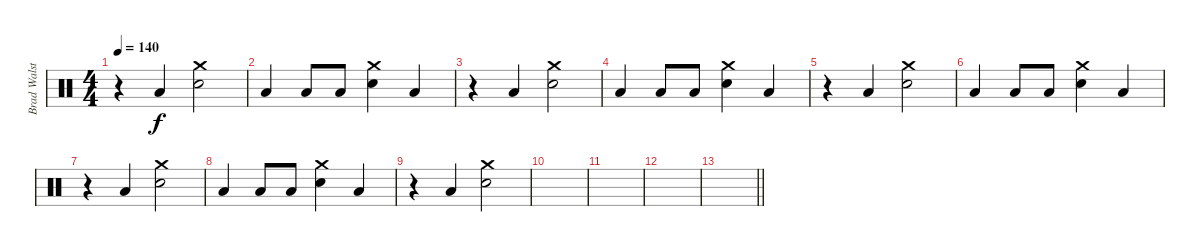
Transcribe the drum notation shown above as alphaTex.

\track ("Brad Walst" "Brad Walst") {instrument percussion}
\staff {score}
\articulation defaults
\ts (4 4)
\tempo 140
\clef neutral
\ks c
r.4{dy f} "Low Floor Tom (hit)".4 ("Crash medium (hit)" "Electric Snare (hit)").2 |
"Low Floor Tom (hit)".4 "Low Floor Tom (hit)".8 "Low Floor Tom (hit)".8 ("Crash medium (hit)" "Electric Snare (hit)").4 "Low Floor Tom (hit)".4 |
r.4 "Low Floor Tom (hit)".4 ("Crash medium (hit)" "Electric Snare (hit)").2 |
"Low Floor Tom (hit)".4 "Low Floor Tom (hit)".8 "Low Floor Tom (hit)".8 ("Crash medium (hit)" "Electric Snare (hit)").4 "Low Floor Tom (hit)".4 |
r.4 "Low Floor Tom (hit)".4 ("Crash medium (hit)" "Electric Snare (hit)").2 |
"Low Floor Tom (hit)".4 "Low Floor Tom (hit)".8 "Low Floor Tom (hit)".8 ("Crash medium (hit)" "Electric Snare (hit)").4 "Low Floor Tom (hit)".4 |
r.4 "Low Floor Tom (hit)".4 ("Crash medium (hit)" "Electric Snare (hit)").2 |
"Low Floor Tom (hit)".4 "Low Floor Tom (hit)".8 "Low Floor Tom (hit)".8 ("Crash medium (hit)" "Electric Snare (hit)").4 "Low Floor Tom (hit)".4 |
r.4 "Low Floor Tom (hit)".4 ("Crash medium (hit)" "Electric Snare (hit)").2 |
|
|
|
\barLineRight lightlight
